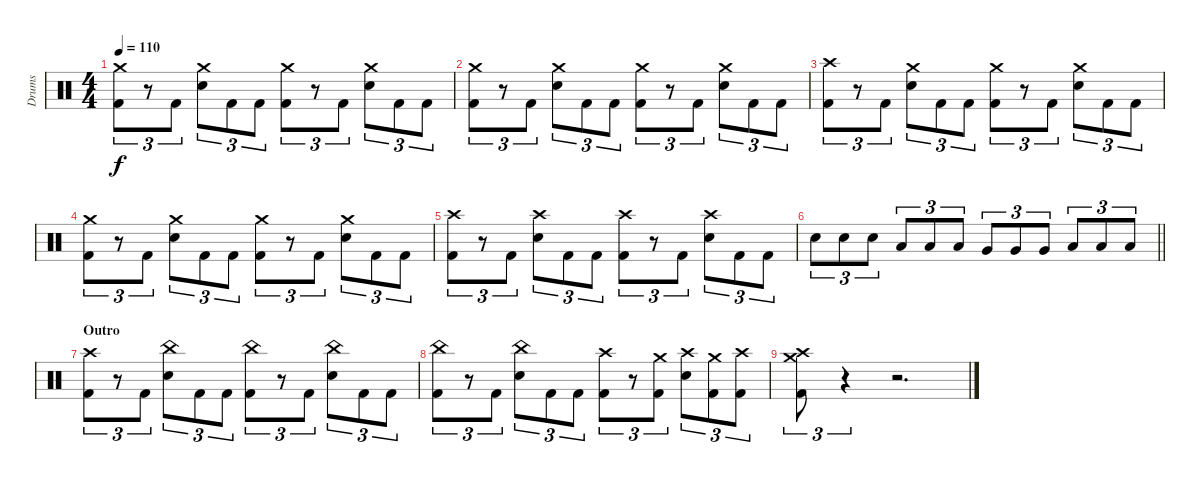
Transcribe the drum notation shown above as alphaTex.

\track ("Drums" "Drums") {instrument percussion}
\staff {score}
\articulation defaults
\ts (4 4)
\tempo 110
\clef neutral
\ks c
("Crash medium (hit)" "Kick (hit) 2").8{tu (3 2) dy f} r.8{tu (3 2)} "Kick (hit) 2".8{tu (3 2)} ("Crash medium (hit)" "Electric Snare (hit)").8{tu (3 2)} "Kick (hit) 2".8{tu (3 2)} "Kick (hit) 2".8{tu (3 2)} ("Crash medium (hit)" "Kick (hit) 2").8{tu (3 2)} r.8{tu (3 2)} "Kick (hit) 2".8{tu (3 2)} ("Crash medium (hit)" "Electric Snare (hit)").8{tu (3 2)} "Kick (hit) 2".8{tu (3 2)} "Kick (hit) 2".8{tu (3 2)} |
("Crash medium (hit)" "Kick (hit) 2").8{tu (3 2)} r.8{tu (3 2)} "Kick (hit) 2".8{tu (3 2)} ("Crash medium (hit)" "Electric Snare (hit)").8{tu (3 2)} "Kick (hit) 2".8{tu (3 2)} "Kick (hit) 2".8{tu (3 2)} ("Crash medium (hit)" "Kick (hit) 2").8{tu (3 2)} r.8{tu (3 2)} "Kick (hit) 2".8{tu (3 2)} ("Crash medium (hit)" "Electric Snare (hit)").8{tu (3 2)} "Kick (hit) 2".8{tu (3 2)} "Kick (hit) 2".8{tu (3 2)} |
("Crash high (hit)" "Kick (hit) 2").8{tu (3 2)} r.8{tu (3 2)} "Kick (hit) 2".8{tu (3 2)} ("Crash medium (hit)" "Electric Snare (hit)").8{tu (3 2)} "Kick (hit) 2".8{tu (3 2)} "Kick (hit) 2".8{tu (3 2)} ("Crash medium (hit)" "Kick (hit) 2").8{tu (3 2)} r.8{tu (3 2)} "Kick (hit) 2".8{tu (3 2)} ("Crash medium (hit)" "Electric Snare (hit)").8{tu (3 2)} "Kick (hit) 2".8{tu (3 2)} "Kick (hit) 2".8{tu (3 2)} |
("Crash medium (hit)" "Kick (hit) 2").8{tu (3 2)} r.8{tu (3 2)} "Kick (hit) 2".8{tu (3 2)} ("Crash medium (hit)" "Electric Snare (hit)").8{tu (3 2)} "Kick (hit) 2".8{tu (3 2)} "Kick (hit) 2".8{tu (3 2)} ("Crash medium (hit)" "Kick (hit) 2").8{tu (3 2)} r.8{tu (3 2)} "Kick (hit) 2".8{tu (3 2)} ("Crash medium (hit)" "Electric Snare (hit)").8{tu (3 2)} "Kick (hit) 2".8{tu (3 2)} "Kick (hit) 2".8{tu (3 2)} |
("Crash high (hit)" "Kick (hit) 2").8{tu (3 2)} r.8{tu (3 2)} "Kick (hit) 2".8{tu (3 2)} ("Crash high (hit)" "Electric Snare (hit)").8{tu (3 2)} "Kick (hit) 2".8{tu (3 2)} "Kick (hit) 2".8{tu (3 2)} ("Crash high (hit)" "Kick (hit) 2").8{tu (3 2)} r.8{tu (3 2)} "Kick (hit) 2".8{tu (3 2)} ("Crash high (hit)" "Electric Snare (hit)").8{tu (3 2)} "Kick (hit) 2".8{tu (3 2)} "Kick (hit) 2".8{tu (3 2)} |
\barLineRight lightlight "Electric Snare (hit)".8{tu (3 2)} "Electric Snare (hit)".8{tu (3 2)} "Electric Snare (hit)".8{tu (3 2)} "Low Tom (hit)".8{tu (3 2)} "Low Tom (hit)".8{tu (3 2)} "Low Tom (hit)".8{tu (3 2)} "Very Low Tom (hit)".8{tu (3 2)} "Very Low Tom (hit)".8{tu (3 2)} "Very Low Tom (hit)".8{tu (3 2)} "Low Floor Tom (hit)".8{tu (3 2)} "Low Floor Tom (hit)".8{tu (3 2)} "Low Floor Tom (hit)".8{tu (3 2)}
|
\section ("" "Outro")
("Crash high (hit)" "Kick (hit) 2").8{tu (3 2)} r.8{tu (3 2)} "Kick (hit) 2".8{tu (3 2)} ("China (hit)" "Electric Snare (hit)").8{tu (3 2)} "Kick (hit) 2".8{tu (3 2)} "Kick (hit) 2".8{tu (3 2)} ("China (hit)" "Kick (hit) 2").8{tu (3 2)} r.8{tu (3 2)} "Kick (hit) 2".8{tu (3 2)} ("China (hit)" "Electric Snare (hit)").8{tu (3 2)} "Kick (hit) 2".8{tu (3 2)} "Kick (hit) 2".8{tu (3 2)} |
("China (hit)" "Kick (hit) 2").8{tu (3 2)} r.8{tu (3 2)} "Kick (hit) 2".8{tu (3 2)} ("China (hit)" "Electric Snare (hit)").8{tu (3 2)} "Kick (hit) 2".8{tu (3 2)} "Kick (hit) 2".8{tu (3 2)} ("Crash high (hit)" "Kick (hit) 2").8{tu (3 2)} r.8{tu (3 2)} ("Crash medium (hit)" "Kick (hit) 2").8{tu (3 2)} ("Crash high (hit)" "Electric Snare (hit)").8{tu (3 2)} ("Crash medium (hit)" "Kick (hit) 2").8{tu (3 2)} ("Crash high (hit)" "Kick (hit) 2").8{tu (3 2)} |
("Crash medium (hit)" "Crash high (hit)" "Kick (hit) 2").8{tu (3 2)} r.4{tu (3 2)} r.2{d}
